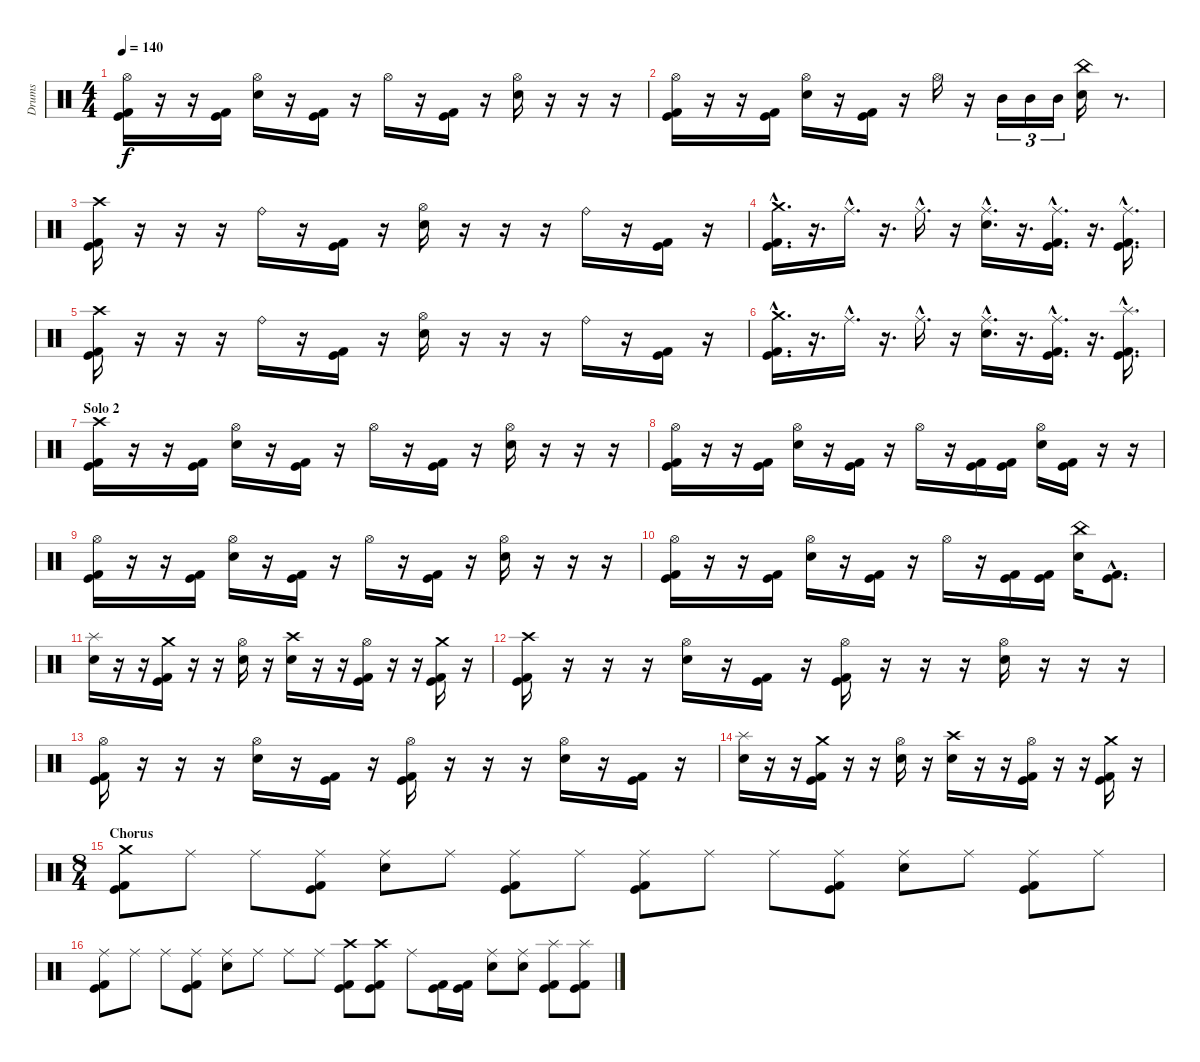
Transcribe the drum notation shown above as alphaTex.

\track ("Drums" "Drums") {instrument percussion}
\staff {score}
\articulation defaults
\ts (4 4)
\tempo 140
\clef neutral
\ks c
("Hi-Hat (open)" "Kick (hit)" "Kick (hit) 2").16{dy f} r.16 r.16 ("Kick (hit)" "Kick (hit) 2").16 ("Hi-Hat (open)" "Electric Snare (hit)").16 r.16 ("Kick (hit)" "Kick (hit) 2").16 r.16 "Hi-Hat (open)".16 r.16 ("Kick (hit)" "Kick (hit) 2").16 r.16 ("Hi-Hat (open)" "Electric Snare (hit)").16 r.16 r.16 r.16 |
("Hi-Hat (open)" "Kick (hit)" "Kick (hit) 2").16 r.16 r.16 ("Kick (hit)" "Kick (hit) 2").16 ("Hi-Hat (open)" "Electric Snare (hit)").16 r.16 ("Kick (hit)" "Kick (hit) 2").16 r.16 "Hi-Hat (open)".16 r.16 "Mid Tom (hit)".16{tu (3 2)} "Mid Tom (hit)".16{tu (3 2)} "Mid Tom (hit)".16{tu (3 2)} ("China (hit)" "Electric Snare (hit)").16 r.8{d} |
("Crash high (hit)" "Kick (hit)" "Kick (hit) 2").16 r.16 r.16 r.16 "Ride (bell)".16 r.16 ("Kick (hit)" "Kick (hit) 2").16 r.16 ("Hi-Hat (open)" "Electric Snare (hit)").16 r.16 r.16 r.16 "Ride (bell)".16 r.16 ("Kick (hit)" "Kick (hit) 2").16 r.16 |
("Crash medium (hit)"{hac} "Kick (hit)"{hac} "Kick (hit) 2"{hac}).16{d} r.16{d} "Ride (middle)"{hac}.16{d} r.16{d} "Ride (middle)"{hac}.16{d} r.16 ("Ride (middle)"{hac} "Electric Snare (hit)"{hac}).16{d} r.16{d} ("Ride (middle)"{hac} "Kick (hit)"{hac} "Kick (hit) 2"{hac}).16{d} r.16{d} ("Ride (middle)"{hac} "Kick (hit)"{hac} "Kick (hit) 2"{hac}).16{d} |
("Crash high (hit)" "Kick (hit)" "Kick (hit) 2").16 r.16 r.16 r.16 "Ride (bell)".16 r.16 ("Kick (hit)" "Kick (hit) 2").16 r.16 ("Hi-Hat (open)" "Electric Snare (hit)").16 r.16 r.16 r.16 "Ride (bell)".16 r.16 ("Kick (hit)" "Kick (hit) 2").16 r.16 |
("Crash medium (hit)"{hac} "Kick (hit)"{hac} "Kick (hit) 2"{hac}).16{d} r.16{d} "Ride (middle)"{hac}.16{d} r.16{d} "Ride (middle)"{hac}.16{d} r.16 ("Ride (middle)"{hac} "Electric Snare (hit)"{hac}).16{d} r.16{d} ("Ride (middle)"{hac} "Kick (hit)"{hac} "Kick (hit) 2"{hac}).16{d} r.16{d} ("Splash (hit)"{hac} "Kick (hit)"{hac} "Kick (hit) 2"{hac}).16{d} |
\section ("" "Solo 2")
("Crash high (hit)" "Kick (hit)" "Kick (hit) 2").16 r.16 r.16 ("Kick (hit)" "Kick (hit) 2").16 ("Hi-Hat (open)" "Electric Snare (hit)").16 r.16 ("Kick (hit)" "Kick (hit) 2").16 r.16 "Hi-Hat (open)".16 r.16 ("Kick (hit)" "Kick (hit) 2").16 r.16 ("Hi-Hat (open)" "Electric Snare (hit)").16 r.16 r.16 r.16 |
("Hi-Hat (open)" "Kick (hit)" "Kick (hit) 2").16 r.16 r.16 ("Kick (hit)" "Kick (hit) 2").16 ("Hi-Hat (open)" "Electric Snare (hit)").16 r.16 ("Kick (hit)" "Kick (hit) 2").16 r.16 "Hi-Hat (open)".16 r.16 ("Kick (hit)" "Kick (hit) 2").16 ("Kick (hit)" "Kick (hit) 2").16 ("Hi-Hat (open)" "Electric Snare (hit)").16 ("Kick (hit)" "Kick (hit) 2").16 r.16 r.16 |
("Hi-Hat (open)" "Kick (hit)" "Kick (hit) 2").16 r.16 r.16 ("Kick (hit)" "Kick (hit) 2").16 ("Hi-Hat (open)" "Electric Snare (hit)").16 r.16 ("Kick (hit)" "Kick (hit) 2").16 r.16 "Hi-Hat (open)".16 r.16 ("Kick (hit)" "Kick (hit) 2").16 r.16 ("Hi-Hat (open)" "Electric Snare (hit)").16 r.16 r.16 r.16 |
("Hi-Hat (open)" "Kick (hit)" "Kick (hit) 2").16 r.16 r.16 ("Kick (hit)" "Kick (hit) 2").16 ("Hi-Hat (open)" "Electric Snare (hit)").16 r.16 ("Kick (hit)" "Kick (hit) 2").16 r.16 "Hi-Hat (open)".16 r.16 ("Kick (hit)" "Kick (hit) 2").16 ("Kick (hit)" "Kick (hit) 2").16 ("China (hit)" "Electric Snare (hit)").16 ("Kick (hit)"{hac} "Kick (hit) 2"{hac}).8{d} |
("Splash (hit)" "Electric Snare (hit)").16 r.16 r.16 ("Crash medium (hit)" "Kick (hit)" "Kick (hit) 2").16 r.16 r.16 ("Hi-Hat (open)" "Electric Snare (hit)").16 r.16 ("Crash high (hit)" "Electric Snare (hit)").16 r.16 r.16 ("Hi-Hat (open)" "Kick (hit)" "Kick (hit) 2").16 r.16 r.16 ("Crash medium (hit)" "Kick (hit)" "Kick (hit) 2").16 r.16 |
("Crash high (hit)" "Kick (hit)" "Kick (hit) 2").16 r.16 r.16 r.16 ("Hi-Hat (open)" "Electric Snare (hit)").16 r.16 ("Kick (hit)" "Kick (hit) 2").16 r.16 ("Hi-Hat (open)" "Kick (hit)" "Kick (hit) 2").16 r.16 r.16 r.16 ("Hi-Hat (open)" "Electric Snare (hit)").16 r.16 r.16 r.16 |
("Hi-Hat (open)" "Kick (hit)" "Kick (hit) 2").16 r.16 r.16 r.16 ("Hi-Hat (open)" "Electric Snare (hit)").16 r.16 ("Kick (hit)" "Kick (hit) 2").16 r.16 ("Hi-Hat (open)" "Kick (hit)" "Kick (hit) 2").16 r.16 r.16 r.16 ("Hi-Hat (open)" "Electric Snare (hit)").16 r.16 ("Kick (hit)" "Kick (hit) 2").16 r.16 |
("Splash (hit)" "Electric Snare (hit)").16 r.16 r.16 ("Crash medium (hit)" "Kick (hit)" "Kick (hit) 2").16 r.16 r.16 ("Hi-Hat (open)" "Electric Snare (hit)").16 r.16 ("Crash high (hit)" "Electric Snare (hit)").16 r.16 r.16 ("Hi-Hat (open)" "Kick (hit)" "Kick (hit) 2").16 r.16 r.16 ("Crash medium (hit)" "Kick (hit)" "Kick (hit) 2").16 r.16 |
\ts (8 4)
\section ("" "Chorus")
("Crash medium (hit)" "Kick (hit)" "Kick (hit) 2").8 "Ride (middle)".8 "Ride (middle)".8 ("Ride (middle)" "Kick (hit)" "Kick (hit) 2").8 ("Ride (middle)" "Electric Snare (hit)").8 "Ride (middle)".8 ("Ride (middle)" "Kick (hit)" "Kick (hit) 2").8 "Ride (middle)".8 ("Ride (middle)" "Kick (hit)" "Kick (hit) 2").8 "Ride (middle)".8 "Ride (middle)".8 ("Ride (middle)" "Kick (hit)" "Kick (hit) 2").8 ("Ride (middle)" "Electric Snare (hit)").8 "Ride (middle)".8 ("Ride (middle)" "Kick (hit)" "Kick (hit) 2").8 "Ride (middle)".8 |
("Ride (middle)" "Kick (hit)" "Kick (hit) 2").8 "Ride (middle)".8 "Ride (middle)".8 ("Ride (middle)" "Kick (hit)" "Kick (hit) 2").8 ("Ride (middle)" "Electric Snare (hit)").8 "Ride (middle)".8 "Ride (middle)".8 "Ride (middle)".8 ("Crash high (hit)" "Kick (hit)" "Kick (hit) 2").8 ("Crash high (hit)" "Kick (hit)" "Kick (hit) 2").8 "Ride (middle)".8 ("Kick (hit)" "Kick (hit) 2").16 ("Kick (hit)" "Kick (hit) 2").16 ("Ride (middle)" "Electric Snare (hit)").8 ("Ride (middle)" "Electric Snare (hit)").8 ("Splash (hit)" "Kick (hit)" "Kick (hit) 2").8 ("Splash (hit)" "Kick (hit)" "Kick (hit) 2").8
